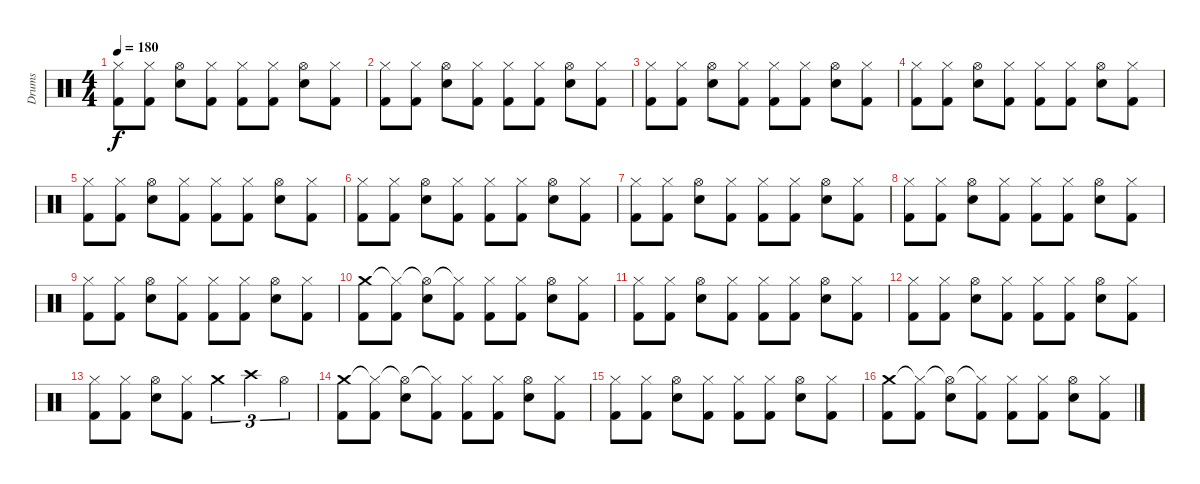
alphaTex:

\track ("Drums" "Drums") {instrument percussion}
\staff {score}
\articulation defaults
\ts (4 4)
\tempo 180
\clef neutral
\ks c
("Hi-Hat (closed)" "Kick (hit) 2").8{dy f} ("Hi-Hat (closed)" "Kick (hit) 2").8 ("Hi-Hat (open)" "Snare (hit) 2").8 ("Hi-Hat (closed)" "Kick (hit) 2").8 ("Hi-Hat (closed)" "Kick (hit) 2").8 ("Hi-Hat (closed)" "Kick (hit) 2").8 ("Hi-Hat (open)" "Snare (hit) 2").8 ("Hi-Hat (closed)" "Kick (hit) 2").8 |
("Hi-Hat (closed)" "Kick (hit) 2").8 ("Hi-Hat (closed)" "Kick (hit) 2").8 ("Hi-Hat (open)" "Snare (hit) 2").8 ("Hi-Hat (closed)" "Kick (hit) 2").8 ("Hi-Hat (closed)" "Kick (hit) 2").8 ("Hi-Hat (closed)" "Kick (hit) 2").8 ("Hi-Hat (open)" "Snare (hit) 2").8 ("Hi-Hat (closed)" "Kick (hit) 2").8 |
("Hi-Hat (closed)" "Kick (hit) 2").8 ("Hi-Hat (closed)" "Kick (hit) 2").8 ("Hi-Hat (open)" "Snare (hit) 2").8 ("Hi-Hat (closed)" "Kick (hit) 2").8 ("Hi-Hat (closed)" "Kick (hit) 2").8 ("Hi-Hat (closed)" "Kick (hit) 2").8 ("Hi-Hat (open)" "Snare (hit) 2").8 ("Hi-Hat (closed)" "Kick (hit) 2").8 |
("Hi-Hat (closed)" "Kick (hit) 2").8 ("Hi-Hat (closed)" "Kick (hit) 2").8 ("Hi-Hat (open)" "Snare (hit) 2").8 ("Hi-Hat (closed)" "Kick (hit) 2").8 ("Hi-Hat (closed)" "Kick (hit) 2").8 ("Hi-Hat (closed)" "Kick (hit) 2").8 ("Hi-Hat (open)" "Snare (hit) 2").8 ("Hi-Hat (closed)" "Kick (hit) 2").8 |
("Hi-Hat (closed)" "Kick (hit) 2").8 ("Hi-Hat (closed)" "Kick (hit) 2").8 ("Hi-Hat (open)" "Snare (hit) 2").8 ("Hi-Hat (closed)" "Kick (hit) 2").8 ("Hi-Hat (closed)" "Kick (hit) 2").8 ("Hi-Hat (closed)" "Kick (hit) 2").8 ("Hi-Hat (open)" "Snare (hit) 2").8 ("Hi-Hat (closed)" "Kick (hit) 2").8 |
("Hi-Hat (closed)" "Kick (hit) 2").8 ("Hi-Hat (closed)" "Kick (hit) 2").8 ("Hi-Hat (open)" "Snare (hit) 2").8 ("Hi-Hat (closed)" "Kick (hit) 2").8 ("Hi-Hat (closed)" "Kick (hit) 2").8 ("Hi-Hat (closed)" "Kick (hit) 2").8 ("Hi-Hat (open)" "Snare (hit) 2").8 ("Hi-Hat (closed)" "Kick (hit) 2").8 |
("Hi-Hat (closed)" "Kick (hit) 2").8 ("Hi-Hat (closed)" "Kick (hit) 2").8 ("Hi-Hat (open)" "Snare (hit) 2").8 ("Hi-Hat (closed)" "Kick (hit) 2").8 ("Hi-Hat (closed)" "Kick (hit) 2").8 ("Hi-Hat (closed)" "Kick (hit) 2").8 ("Hi-Hat (open)" "Snare (hit) 2").8 ("Hi-Hat (closed)" "Kick (hit) 2").8 |
("Hi-Hat (closed)" "Kick (hit) 2").8 ("Hi-Hat (closed)" "Kick (hit) 2").8 ("Hi-Hat (open)" "Snare (hit) 2").8 ("Hi-Hat (closed)" "Kick (hit) 2").8 ("Hi-Hat (closed)" "Kick (hit) 2").8 ("Hi-Hat (closed)" "Kick (hit) 2").8 ("Hi-Hat (open)" "Snare (hit) 2").8 ("Hi-Hat (closed)" "Kick (hit) 2").8 |
("Hi-Hat (closed)" "Kick (hit) 2").8 ("Hi-Hat (closed)" "Kick (hit) 2").8 ("Hi-Hat (open)" "Snare (hit) 2").8 ("Hi-Hat (closed)" "Kick (hit) 2").8 ("Hi-Hat (closed)" "Kick (hit) 2").8 ("Hi-Hat (closed)" "Kick (hit) 2").8 ("Hi-Hat (open)" "Snare (hit) 2").8 ("Hi-Hat (closed)" "Kick (hit) 2").8 |
("Crash medium (hit)" "Kick (hit) 2").8 ("Hi-Hat (closed)"{t} "Kick (hit) 2").8 ("Hi-Hat (open)"{t} "Snare (hit) 2").8 ("Hi-Hat (closed)"{t} "Kick (hit) 2").8 ("Hi-Hat (closed)" "Kick (hit) 2").8 ("Hi-Hat (closed)" "Kick (hit) 2").8 ("Hi-Hat (open)" "Snare (hit) 2").8 ("Hi-Hat (closed)" "Kick (hit) 2").8 |
("Hi-Hat (closed)" "Kick (hit) 2").8 ("Hi-Hat (closed)" "Kick (hit) 2").8 ("Hi-Hat (open)" "Snare (hit) 2").8 ("Hi-Hat (closed)" "Kick (hit) 2").8 ("Hi-Hat (closed)" "Kick (hit) 2").8 ("Hi-Hat (closed)" "Kick (hit) 2").8 ("Hi-Hat (open)" "Snare (hit) 2").8 ("Hi-Hat (closed)" "Kick (hit) 2").8 |
("Hi-Hat (closed)" "Kick (hit) 2").8 ("Hi-Hat (closed)" "Kick (hit) 2").8 ("Hi-Hat (open)" "Snare (hit) 2").8 ("Hi-Hat (closed)" "Kick (hit) 2").8 ("Hi-Hat (closed)" "Kick (hit) 2").8 ("Hi-Hat (closed)" "Kick (hit) 2").8 ("Hi-Hat (open)" "Snare (hit) 2").8 ("Hi-Hat (closed)" "Kick (hit) 2").8 |
("Hi-Hat (closed)" "Kick (hit) 2").8 ("Hi-Hat (closed)" "Kick (hit) 2").8 ("Hi-Hat (open)" "Snare (hit) 2").8 ("Hi-Hat (closed)" "Kick (hit) 2").8 "Crash medium (hit)".4{tu (3 2)} "Crash high (hit)".4{tu (3 2)} "Hi-Hat (open)".4{tu (3 2)} |
("Crash medium (hit)" "Kick (hit) 2").8 ("Hi-Hat (closed)"{t} "Kick (hit) 2").8 ("Hi-Hat (open)"{t} "Snare (hit) 2").8 ("Hi-Hat (closed)"{t} "Kick (hit) 2").8 ("Hi-Hat (closed)" "Kick (hit) 2").8 ("Hi-Hat (closed)" "Kick (hit) 2").8 ("Hi-Hat (open)" "Snare (hit) 2").8 ("Hi-Hat (closed)" "Kick (hit) 2").8 |
("Hi-Hat (closed)" "Kick (hit) 2").8 ("Hi-Hat (closed)" "Kick (hit) 2").8 ("Hi-Hat (open)" "Snare (hit) 2").8 ("Hi-Hat (closed)" "Kick (hit) 2").8 ("Hi-Hat (closed)" "Kick (hit) 2").8 ("Hi-Hat (closed)" "Kick (hit) 2").8 ("Hi-Hat (open)" "Snare (hit) 2").8 ("Hi-Hat (closed)" "Kick (hit) 2").8 |
("Crash medium (hit)" "Kick (hit) 2").8 ("Hi-Hat (closed)"{t} "Kick (hit) 2").8 ("Hi-Hat (open)"{t} "Snare (hit) 2").8 ("Hi-Hat (closed)"{t} "Kick (hit) 2").8 ("Hi-Hat (closed)" "Kick (hit) 2").8 ("Hi-Hat (closed)" "Kick (hit) 2").8 ("Hi-Hat (open)" "Snare (hit) 2").8 ("Hi-Hat (closed)" "Kick (hit) 2").8
